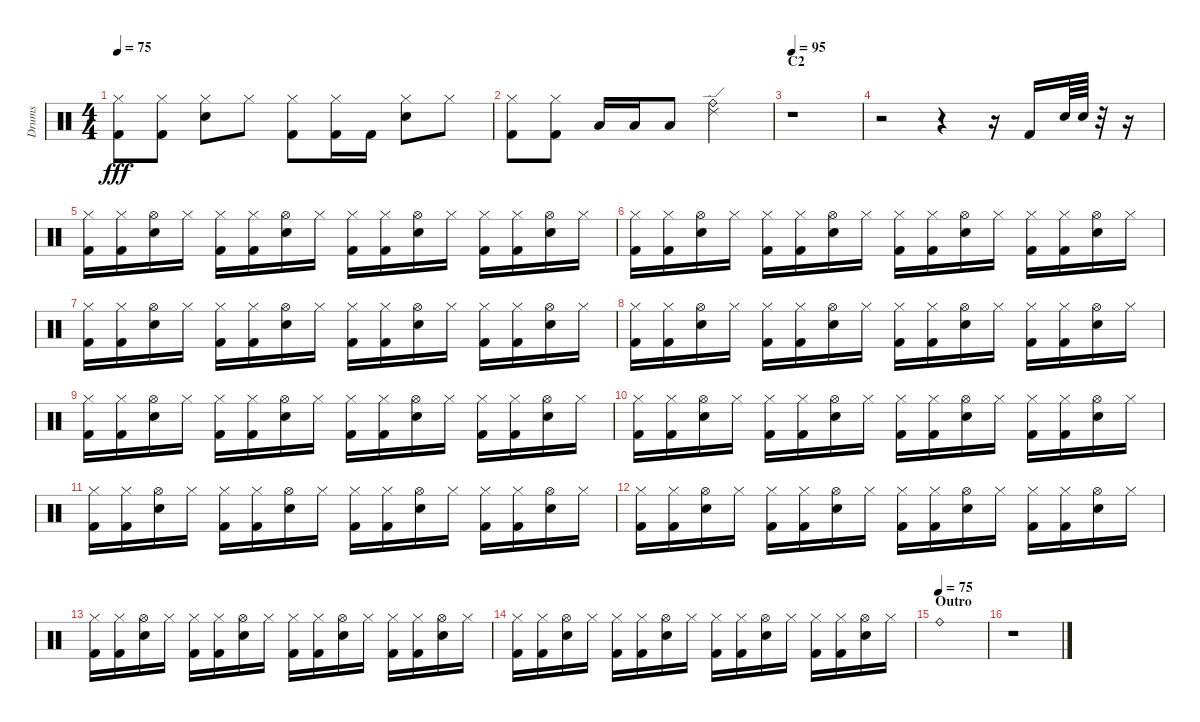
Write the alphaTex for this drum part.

\track ("Drums" "Drums") {instrument percussion}
\staff {score}
\articulation defaults
\ts (4 4)
\tempo 75
\clef neutral
\ks c
("Hi-Hat (closed)" "Kick (hit) 2").8{dy fff} ("Hi-Hat (closed)" "Kick (hit) 2").8 ("Hi-Hat (closed)" "Snare (hit) 2").8 "Hi-Hat (closed)".8 ("Hi-Hat (closed)" "Kick (hit) 2").8 ("Hi-Hat (closed)" "Kick (hit) 2").16 "Kick (hit) 2".16 ("Hi-Hat (closed)" "Snare (hit) 2").8 "Hi-Hat (closed)".8 |
("Hi-Hat (closed)" "Kick (hit) 2").8 ("Hi-Hat (closed)" "Kick (hit) 2").8 "Low Tom (hit)".16 "Low Tom (hit)".16 "Low Tom (hit)".8 ("Ride (edge) 2" "Ride (bell)").2 |
\section ("" "C2")
\tempo 95
r.1 |
r.2 r.4 r.16 "Kick (hit) 2".16 "Snare (hit) 2".64 "Snare (hit) 2".64 r.32 r.16 |
("Hi-Hat (closed)" "Kick (hit) 2").16 ("Hi-Hat (closed)" "Kick (hit) 2").16 ("Hi-Hat (open)" "Snare (hit) 2").16 "Hi-Hat (closed)".16 ("Hi-Hat (closed)" "Kick (hit) 2").16 ("Hi-Hat (closed)" "Kick (hit) 2").16 ("Hi-Hat (open)" "Snare (hit) 2").16 "Hi-Hat (closed)".16 ("Hi-Hat (closed)" "Kick (hit) 2").16 ("Hi-Hat (closed)" "Kick (hit) 2").16 ("Hi-Hat (open)" "Snare (hit) 2").16 "Hi-Hat (closed)".16 ("Hi-Hat (closed)" "Kick (hit) 2").16 ("Hi-Hat (closed)" "Kick (hit) 2").16 ("Hi-Hat (open)" "Snare (hit) 2").16 "Hi-Hat (closed)".16 |
("Hi-Hat (closed)" "Kick (hit) 2").16 ("Hi-Hat (closed)" "Kick (hit) 2").16 ("Hi-Hat (open)" "Snare (hit) 2").16 "Hi-Hat (closed)".16 ("Hi-Hat (closed)" "Kick (hit) 2").16 ("Hi-Hat (closed)" "Kick (hit) 2").16 ("Hi-Hat (open)" "Snare (hit) 2").16 "Hi-Hat (closed)".16 ("Hi-Hat (closed)" "Kick (hit) 2").16 ("Hi-Hat (closed)" "Kick (hit) 2").16 ("Hi-Hat (open)" "Snare (hit) 2").16 "Hi-Hat (closed)".16 ("Hi-Hat (closed)" "Kick (hit) 2").16 ("Hi-Hat (closed)" "Kick (hit) 2").16 ("Hi-Hat (open)" "Snare (hit) 2").16 "Hi-Hat (closed)".16 |
("Hi-Hat (closed)" "Kick (hit) 2").16 ("Hi-Hat (closed)" "Kick (hit) 2").16 ("Hi-Hat (open)" "Snare (hit) 2").16 "Hi-Hat (closed)".16 ("Hi-Hat (closed)" "Kick (hit) 2").16 ("Hi-Hat (closed)" "Kick (hit) 2").16 ("Hi-Hat (open)" "Snare (hit) 2").16 "Hi-Hat (closed)".16 ("Hi-Hat (closed)" "Kick (hit) 2").16 ("Hi-Hat (closed)" "Kick (hit) 2").16 ("Hi-Hat (open)" "Snare (hit) 2").16 "Hi-Hat (closed)".16 ("Hi-Hat (closed)" "Kick (hit) 2").16 ("Hi-Hat (closed)" "Kick (hit) 2").16 ("Hi-Hat (open)" "Snare (hit) 2").16 "Hi-Hat (closed)".16 |
("Hi-Hat (closed)" "Kick (hit) 2").16 ("Hi-Hat (closed)" "Kick (hit) 2").16 ("Hi-Hat (open)" "Snare (hit) 2").16 "Hi-Hat (closed)".16 ("Hi-Hat (closed)" "Kick (hit) 2").16 ("Hi-Hat (closed)" "Kick (hit) 2").16 ("Hi-Hat (open)" "Snare (hit) 2").16 "Hi-Hat (closed)".16 ("Hi-Hat (closed)" "Kick (hit) 2").16 ("Hi-Hat (closed)" "Kick (hit) 2").16 ("Hi-Hat (open)" "Snare (hit) 2").16 "Hi-Hat (closed)".16 ("Hi-Hat (closed)" "Kick (hit) 2").16 ("Hi-Hat (closed)" "Kick (hit) 2").16 ("Hi-Hat (open)" "Snare (hit) 2").16 "Hi-Hat (closed)".16 |
("Hi-Hat (closed)" "Kick (hit) 2").16 ("Hi-Hat (closed)" "Kick (hit) 2").16 ("Hi-Hat (open)" "Snare (hit) 2").16 "Hi-Hat (closed)".16 ("Hi-Hat (closed)" "Kick (hit) 2").16 ("Hi-Hat (closed)" "Kick (hit) 2").16 ("Hi-Hat (open)" "Snare (hit) 2").16 "Hi-Hat (closed)".16 ("Hi-Hat (closed)" "Kick (hit) 2").16 ("Hi-Hat (closed)" "Kick (hit) 2").16 ("Hi-Hat (open)" "Snare (hit) 2").16 "Hi-Hat (closed)".16 ("Hi-Hat (closed)" "Kick (hit) 2").16 ("Hi-Hat (closed)" "Kick (hit) 2").16 ("Hi-Hat (open)" "Snare (hit) 2").16 "Hi-Hat (closed)".16 |
("Hi-Hat (closed)" "Kick (hit) 2").16 ("Hi-Hat (closed)" "Kick (hit) 2").16 ("Hi-Hat (open)" "Snare (hit) 2").16 "Hi-Hat (closed)".16 ("Hi-Hat (closed)" "Kick (hit) 2").16 ("Hi-Hat (closed)" "Kick (hit) 2").16 ("Hi-Hat (open)" "Snare (hit) 2").16 "Hi-Hat (closed)".16 ("Hi-Hat (closed)" "Kick (hit) 2").16 ("Hi-Hat (closed)" "Kick (hit) 2").16 ("Hi-Hat (open)" "Snare (hit) 2").16 "Hi-Hat (closed)".16 ("Hi-Hat (closed)" "Kick (hit) 2").16 ("Hi-Hat (closed)" "Kick (hit) 2").16 ("Hi-Hat (open)" "Snare (hit) 2").16 "Hi-Hat (closed)".16 |
("Hi-Hat (closed)" "Kick (hit) 2").16 ("Hi-Hat (closed)" "Kick (hit) 2").16 ("Hi-Hat (open)" "Snare (hit) 2").16 "Hi-Hat (closed)".16 ("Hi-Hat (closed)" "Kick (hit) 2").16 ("Hi-Hat (closed)" "Kick (hit) 2").16 ("Hi-Hat (open)" "Snare (hit) 2").16 "Hi-Hat (closed)".16 ("Hi-Hat (closed)" "Kick (hit) 2").16 ("Hi-Hat (closed)" "Kick (hit) 2").16 ("Hi-Hat (open)" "Snare (hit) 2").16 "Hi-Hat (closed)".16 ("Hi-Hat (closed)" "Kick (hit) 2").16 ("Hi-Hat (closed)" "Kick (hit) 2").16 ("Hi-Hat (open)" "Snare (hit) 2").16 "Hi-Hat (closed)".16 |
("Hi-Hat (closed)" "Kick (hit) 2").16 ("Hi-Hat (closed)" "Kick (hit) 2").16 ("Hi-Hat (open)" "Snare (hit) 2").16 "Hi-Hat (closed)".16 ("Hi-Hat (closed)" "Kick (hit) 2").16 ("Hi-Hat (closed)" "Kick (hit) 2").16 ("Hi-Hat (open)" "Snare (hit) 2").16 "Hi-Hat (closed)".16 ("Hi-Hat (closed)" "Kick (hit) 2").16 ("Hi-Hat (closed)" "Kick (hit) 2").16 ("Hi-Hat (open)" "Snare (hit) 2").16 "Hi-Hat (closed)".16 ("Hi-Hat (closed)" "Kick (hit) 2").16 ("Hi-Hat (closed)" "Kick (hit) 2").16 ("Hi-Hat (open)" "Snare (hit) 2").16 "Hi-Hat (closed)".16 |
("Hi-Hat (closed)" "Kick (hit) 2").16 ("Hi-Hat (closed)" "Kick (hit) 2").16 ("Hi-Hat (open)" "Snare (hit) 2").16 "Hi-Hat (closed)".16 ("Hi-Hat (closed)" "Kick (hit) 2").16 ("Hi-Hat (closed)" "Kick (hit) 2").16 ("Hi-Hat (open)" "Snare (hit) 2").16 "Hi-Hat (closed)".16 ("Hi-Hat (closed)" "Kick (hit) 2").16 ("Hi-Hat (closed)" "Kick (hit) 2").16 ("Hi-Hat (open)" "Snare (hit) 2").16 "Hi-Hat (closed)".16 ("Hi-Hat (closed)" "Kick (hit) 2").16 ("Hi-Hat (closed)" "Kick (hit) 2").16 ("Hi-Hat (open)" "Snare (hit) 2").16 "Hi-Hat (closed)".16 |
("Hi-Hat (closed)" "Kick (hit) 2").16 ("Hi-Hat (closed)" "Kick (hit) 2").16 ("Hi-Hat (open)" "Snare (hit) 2").16 "Hi-Hat (closed)".16 ("Hi-Hat (closed)" "Kick (hit) 2").16 ("Hi-Hat (closed)" "Kick (hit) 2").16 ("Hi-Hat (open)" "Snare (hit) 2").16 "Hi-Hat (closed)".16 ("Hi-Hat (closed)" "Kick (hit) 2").16 ("Hi-Hat (closed)" "Kick (hit) 2").16 ("Hi-Hat (open)" "Snare (hit) 2").16 "Hi-Hat (closed)".16 ("Hi-Hat (closed)" "Kick (hit) 2").16 ("Hi-Hat (closed)" "Kick (hit) 2").16 ("Hi-Hat (open)" "Snare (hit) 2").16 "Hi-Hat (closed)".16 |
\section ("" "Outro")
\tempo (75)
"Ride (bell)".1 |
r.1
